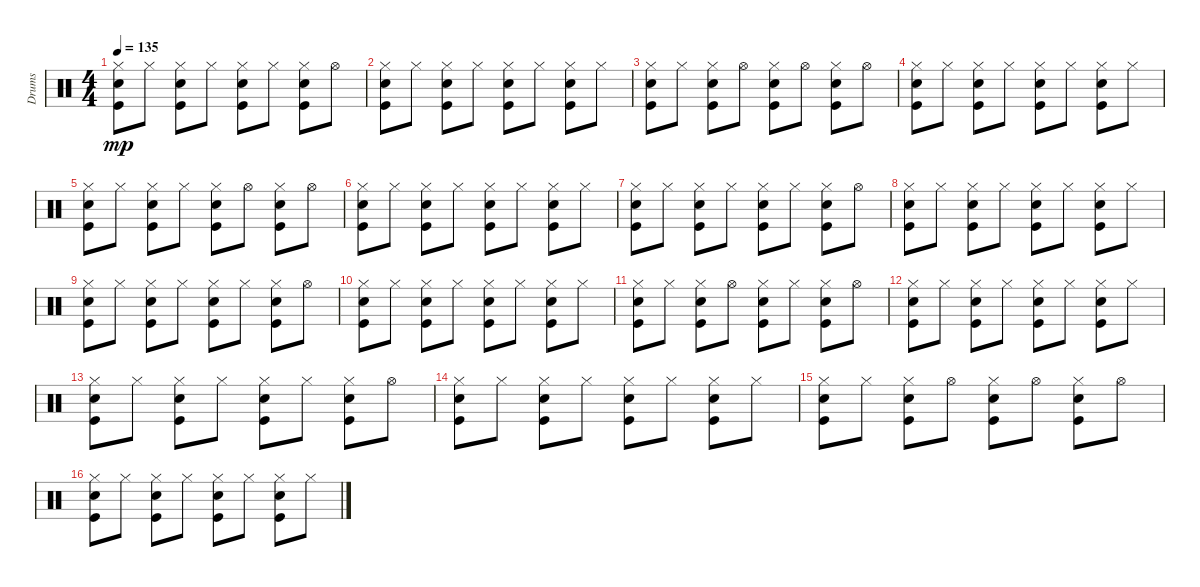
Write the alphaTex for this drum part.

\track ("Drums   " "Drums   ") {instrument percussion}
\staff {score}
\articulation defaults
\ts (4 4)
\tempo 135
\clef neutral
\ks c
("Snare (hit) 2" "Hi-Hat (closed)" "Kick (hit)").8{dy mp} "Hi-Hat (closed)".8 ("Snare (hit) 2" "Hi-Hat (closed)" "Kick (hit)").8 "Hi-Hat (closed)".8 ("Snare (hit) 2" "Hi-Hat (closed)" "Kick (hit)").8 "Hi-Hat (closed)".8 ("Snare (hit) 2" "Hi-Hat (closed)" "Kick (hit)").8 "Hi-Hat (open)".8 |
("Snare (hit) 2" "Hi-Hat (closed)" "Kick (hit)").8 "Hi-Hat (closed)".8 ("Snare (hit) 2" "Hi-Hat (closed)" "Kick (hit)").8 "Hi-Hat (closed)".8 ("Snare (hit) 2" "Hi-Hat (closed)" "Kick (hit)").8 "Hi-Hat (closed)".8 ("Snare (hit) 2" "Hi-Hat (closed)" "Kick (hit)").8 "Hi-Hat (closed)".8 |
("Snare (hit) 2" "Hi-Hat (closed)" "Kick (hit)").8 "Hi-Hat (closed)".8 ("Snare (hit) 2" "Hi-Hat (closed)" "Kick (hit)").8 "Hi-Hat (open)".8 ("Snare (hit) 2" "Hi-Hat (closed)" "Kick (hit)").8 "Hi-Hat (open)".8 ("Snare (hit) 2" "Hi-Hat (closed)" "Kick (hit)").8 "Hi-Hat (open)".8 |
("Snare (hit) 2" "Hi-Hat (closed)" "Kick (hit)").8 "Hi-Hat (closed)".8 ("Snare (hit) 2" "Hi-Hat (closed)" "Kick (hit)").8 "Hi-Hat (closed)".8 ("Snare (hit) 2" "Hi-Hat (closed)" "Kick (hit)").8 "Hi-Hat (closed)".8 ("Snare (hit) 2" "Hi-Hat (closed)" "Kick (hit)").8 "Hi-Hat (closed)".8 |
("Snare (hit) 2" "Hi-Hat (closed)" "Kick (hit)").8 "Hi-Hat (closed)".8 ("Snare (hit) 2" "Hi-Hat (closed)" "Kick (hit)").8 "Hi-Hat (closed)".8 ("Snare (hit) 2" "Hi-Hat (closed)" "Kick (hit)").8 "Hi-Hat (open)".8 ("Snare (hit) 2" "Hi-Hat (closed)" "Kick (hit)").8 "Hi-Hat (open)".8 |
("Snare (hit) 2" "Hi-Hat (closed)" "Kick (hit)").8 "Hi-Hat (closed)".8 ("Snare (hit) 2" "Hi-Hat (closed)" "Kick (hit)").8 "Hi-Hat (closed)".8 ("Snare (hit) 2" "Hi-Hat (closed)" "Kick (hit)").8 "Hi-Hat (closed)".8 ("Snare (hit) 2" "Hi-Hat (closed)" "Kick (hit)").8 "Hi-Hat (closed)".8 |
("Snare (hit) 2" "Hi-Hat (closed)" "Kick (hit)").8 "Hi-Hat (closed)".8 ("Snare (hit) 2" "Hi-Hat (closed)" "Kick (hit)").8 "Hi-Hat (closed)".8 ("Snare (hit) 2" "Hi-Hat (closed)" "Kick (hit)").8 "Hi-Hat (closed)".8 ("Snare (hit) 2" "Hi-Hat (closed)" "Kick (hit)").8 "Hi-Hat (open)".8 |
("Snare (hit) 2" "Hi-Hat (closed)" "Kick (hit)").8 "Hi-Hat (closed)".8 ("Snare (hit) 2" "Hi-Hat (closed)" "Kick (hit)").8 "Hi-Hat (closed)".8 ("Snare (hit) 2" "Hi-Hat (closed)" "Kick (hit)").8 "Hi-Hat (closed)".8 ("Snare (hit) 2" "Hi-Hat (closed)" "Kick (hit)").8 "Hi-Hat (closed)".8 |
("Snare (hit) 2" "Hi-Hat (closed)" "Kick (hit)").8 "Hi-Hat (closed)".8 ("Snare (hit) 2" "Hi-Hat (closed)" "Kick (hit)").8 "Hi-Hat (closed)".8 ("Snare (hit) 2" "Hi-Hat (closed)" "Kick (hit)").8 "Hi-Hat (closed)".8 ("Snare (hit) 2" "Hi-Hat (closed)" "Kick (hit)").8 "Hi-Hat (open)".8 |
("Snare (hit) 2" "Hi-Hat (closed)" "Kick (hit)").8 "Hi-Hat (closed)".8 ("Snare (hit) 2" "Hi-Hat (closed)" "Kick (hit)").8 "Hi-Hat (closed)".8 ("Snare (hit) 2" "Hi-Hat (closed)" "Kick (hit)").8 "Hi-Hat (closed)".8 ("Snare (hit) 2" "Hi-Hat (closed)" "Kick (hit)").8 "Hi-Hat (closed)".8 |
("Snare (hit) 2" "Hi-Hat (closed)" "Kick (hit)").8 "Hi-Hat (closed)".8 ("Snare (hit) 2" "Hi-Hat (closed)" "Kick (hit)").8 "Hi-Hat (open)".8 ("Snare (hit) 2" "Hi-Hat (closed)" "Kick (hit)").8 "Hi-Hat (closed)".8 ("Snare (hit) 2" "Hi-Hat (closed)" "Kick (hit)").8 "Hi-Hat (open)".8 |
("Snare (hit) 2" "Hi-Hat (closed)" "Kick (hit)").8 "Hi-Hat (closed)".8 ("Snare (hit) 2" "Hi-Hat (closed)" "Kick (hit)").8 "Hi-Hat (closed)".8 ("Snare (hit) 2" "Hi-Hat (closed)" "Kick (hit)").8 "Hi-Hat (closed)".8 ("Snare (hit) 2" "Hi-Hat (closed)" "Kick (hit)").8 "Hi-Hat (closed)".8 |
("Snare (hit) 2" "Hi-Hat (closed)" "Kick (hit)").8 "Hi-Hat (closed)".8 ("Snare (hit) 2" "Hi-Hat (closed)" "Kick (hit)").8 "Hi-Hat (closed)".8 ("Snare (hit) 2" "Hi-Hat (closed)" "Kick (hit)").8 "Hi-Hat (closed)".8 ("Snare (hit) 2" "Hi-Hat (closed)" "Kick (hit)").8 "Hi-Hat (open)".8 |
("Snare (hit) 2" "Hi-Hat (closed)" "Kick (hit)").8 "Hi-Hat (closed)".8 ("Snare (hit) 2" "Hi-Hat (closed)" "Kick (hit)").8 "Hi-Hat (closed)".8 ("Snare (hit) 2" "Hi-Hat (closed)" "Kick (hit)").8 "Hi-Hat (closed)".8 ("Snare (hit) 2" "Hi-Hat (closed)" "Kick (hit)").8 "Hi-Hat (closed)".8 |
("Snare (hit) 2" "Hi-Hat (closed)" "Kick (hit)").8 "Hi-Hat (closed)".8 ("Snare (hit) 2" "Hi-Hat (closed)" "Kick (hit)").8 "Hi-Hat (open)".8 ("Snare (hit) 2" "Hi-Hat (closed)" "Kick (hit)").8 "Hi-Hat (open)".8 ("Snare (hit) 2" "Hi-Hat (closed)" "Kick (hit)").8 "Hi-Hat (open)".8 |
("Snare (hit) 2" "Hi-Hat (closed)" "Kick (hit)").8 "Hi-Hat (closed)".8 ("Snare (hit) 2" "Hi-Hat (closed)" "Kick (hit)").8 "Hi-Hat (closed)".8 ("Snare (hit) 2" "Hi-Hat (closed)" "Kick (hit)").8 "Hi-Hat (closed)".8 ("Snare (hit) 2" "Hi-Hat (closed)" "Kick (hit)").8 "Hi-Hat (closed)".8
